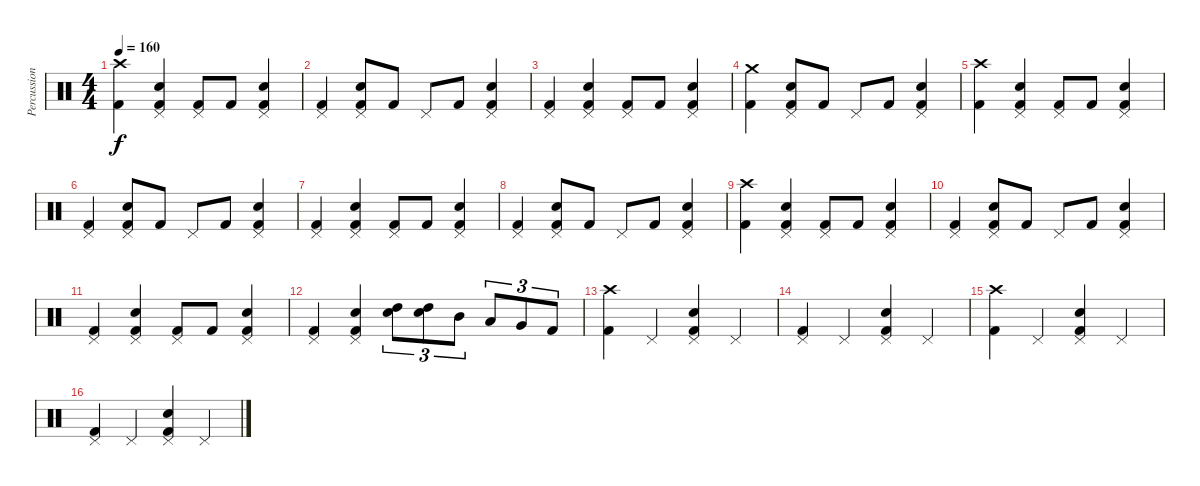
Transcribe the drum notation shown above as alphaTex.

\track ("Percussion" "Percussion") {instrument percussion}
\staff {score}
\articulation defaults
\ts (4 4)
\tempo 160
\clef neutral
\ks c
("Crash high (hit)" "Kick (hit) 2").4{dy f} ("Pedal Hi-Hat (hit)" "Snare (hit) 2" "Kick (hit) 2").4 ("Pedal Hi-Hat (hit)" "Kick (hit) 2").8 "Kick (hit) 2".8 ("Pedal Hi-Hat (hit)" "Snare (hit) 2" "Kick (hit) 2").4 |
("Pedal Hi-Hat (hit)" "Kick (hit) 2").4 ("Pedal Hi-Hat (hit)" "Snare (hit) 2" "Kick (hit) 2").8 "Kick (hit) 2".8 "Pedal Hi-Hat (hit)".8 "Kick (hit) 2".8 ("Pedal Hi-Hat (hit)" "Snare (hit) 2" "Kick (hit) 2").4 |
("Pedal Hi-Hat (hit)" "Kick (hit) 2").4 ("Pedal Hi-Hat (hit)" "Snare (hit) 2" "Kick (hit) 2").4 ("Pedal Hi-Hat (hit)" "Kick (hit) 2").8 "Kick (hit) 2".8 ("Pedal Hi-Hat (hit)" "Snare (hit) 2" "Kick (hit) 2").4 |
("Crash medium (hit)" "Kick (hit) 2").4 ("Pedal Hi-Hat (hit)" "Snare (hit) 2" "Kick (hit) 2").8 "Kick (hit) 2".8 "Pedal Hi-Hat (hit)".8 "Kick (hit) 2".8 ("Pedal Hi-Hat (hit)" "Snare (hit) 2" "Kick (hit) 2").4 |
("Crash high (hit)" "Kick (hit) 2").4 ("Pedal Hi-Hat (hit)" "Snare (hit) 2" "Kick (hit) 2").4 ("Pedal Hi-Hat (hit)" "Kick (hit) 2").8 "Kick (hit) 2".8 ("Pedal Hi-Hat (hit)" "Snare (hit) 2" "Kick (hit) 2").4 |
("Pedal Hi-Hat (hit)" "Kick (hit) 2").4 ("Pedal Hi-Hat (hit)" "Snare (hit) 2" "Kick (hit) 2").8 "Kick (hit) 2".8 "Pedal Hi-Hat (hit)".8 "Kick (hit) 2".8 ("Pedal Hi-Hat (hit)" "Snare (hit) 2" "Kick (hit) 2").4 |
("Pedal Hi-Hat (hit)" "Kick (hit) 2").4 ("Pedal Hi-Hat (hit)" "Snare (hit) 2" "Kick (hit) 2").4 ("Pedal Hi-Hat (hit)" "Kick (hit) 2").8 "Kick (hit) 2".8 ("Pedal Hi-Hat (hit)" "Snare (hit) 2" "Kick (hit) 2").4 |
("Pedal Hi-Hat (hit)" "Kick (hit) 2").4 ("Pedal Hi-Hat (hit)" "Snare (hit) 2" "Kick (hit) 2").8 "Kick (hit) 2".8 "Pedal Hi-Hat (hit)".8 "Kick (hit) 2".8 ("Pedal Hi-Hat (hit)" "Snare (hit) 2" "Kick (hit) 2").4 |
("Crash high (hit)" "Kick (hit) 2").4 ("Pedal Hi-Hat (hit)" "Snare (hit) 2" "Kick (hit) 2").4 ("Pedal Hi-Hat (hit)" "Kick (hit) 2").8 "Kick (hit) 2".8 ("Pedal Hi-Hat (hit)" "Snare (hit) 2" "Kick (hit) 2").4 |
("Pedal Hi-Hat (hit)" "Kick (hit) 2").4 ("Pedal Hi-Hat (hit)" "Snare (hit) 2" "Kick (hit) 2").8 "Kick (hit) 2".8 "Pedal Hi-Hat (hit)".8 "Kick (hit) 2".8 ("Pedal Hi-Hat (hit)" "Snare (hit) 2" "Kick (hit) 2").4 |
("Pedal Hi-Hat (hit)" "Kick (hit) 2").4 ("Pedal Hi-Hat (hit)" "Snare (hit) 2" "Kick (hit) 2").4 ("Pedal Hi-Hat (hit)" "Kick (hit) 2").8 "Kick (hit) 2".8 ("Pedal Hi-Hat (hit)" "Snare (hit) 2" "Kick (hit) 2").4 |
("Pedal Hi-Hat (hit)" "Kick (hit) 2").4 ("Pedal Hi-Hat (hit)" "Snare (hit) 2" "Kick (hit) 2").4 ("Snare (hit) 2" "High Tom (hit)").8{tu (3 2)} ("Snare (hit) 2" "High Tom (hit)").8{tu (3 2)} "Mid Tom (hit)".8{tu (3 2)} "Low Tom (hit)".8{tu (3 2)} "Very Low Tom (hit)".8{tu (3 2)} "Kick (hit) 2".8{tu (3 2)} |
("Crash high (hit)" "Kick (hit) 2").4 "Pedal Hi-Hat (hit)".4 ("Pedal Hi-Hat (hit)" "Snare (hit) 2" "Kick (hit) 2").4 "Pedal Hi-Hat (hit)".4 |
("Pedal Hi-Hat (hit)" "Kick (hit) 2").4 "Pedal Hi-Hat (hit)".4 ("Pedal Hi-Hat (hit)" "Snare (hit) 2" "Kick (hit) 2").4 "Pedal Hi-Hat (hit)".4 |
("Crash high (hit)" "Kick (hit) 2").4 "Pedal Hi-Hat (hit)".4 ("Pedal Hi-Hat (hit)" "Snare (hit) 2" "Kick (hit) 2").4 "Pedal Hi-Hat (hit)".4 |
("Pedal Hi-Hat (hit)" "Kick (hit) 2").4 "Pedal Hi-Hat (hit)".4 ("Pedal Hi-Hat (hit)" "Snare (hit) 2" "Kick (hit) 2").4 "Pedal Hi-Hat (hit)".4
